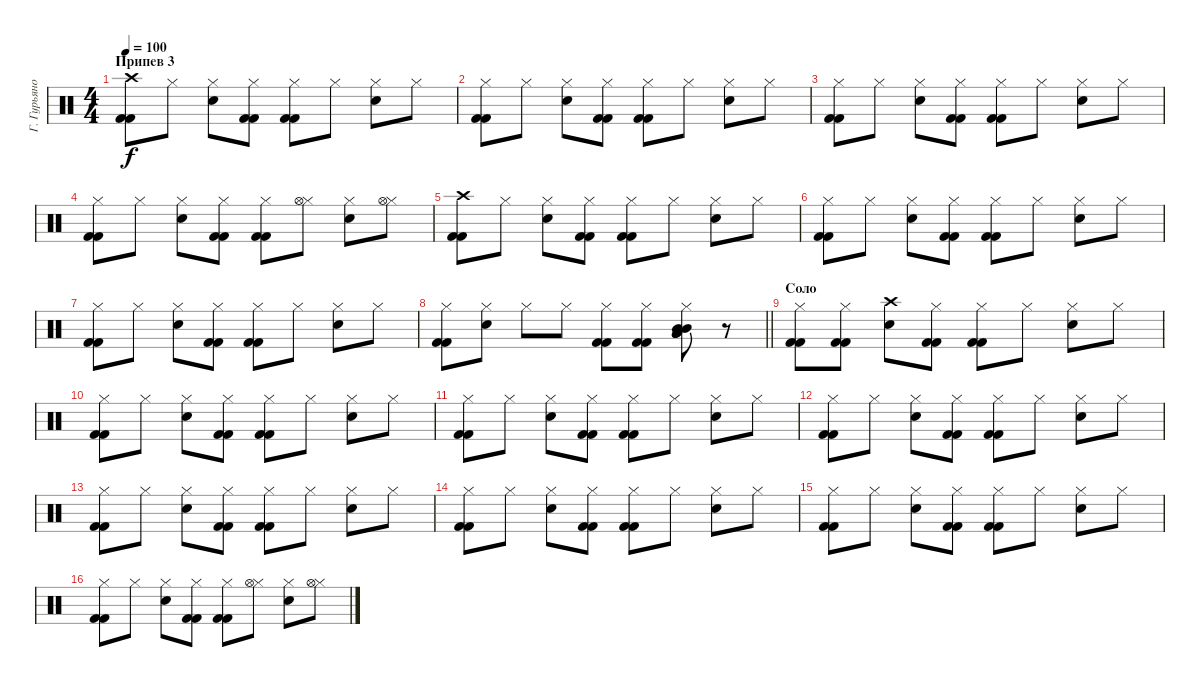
\track ("Г. Гурьянов" "Г. Гурьяно") {instrument percussion}
\staff {score}
\articulation defaults
\ts (4 4)
\section ("" "Припев 3")
\tempo 100
\clef neutral
\ks c
("Crash high (hit)" "Kick (hit) 2" "Kick (hit) 2").8{dy f} "Hi-Hat (closed)".8 ("Hi-Hat (closed)" "Snare (hit) 2").8 ("Hi-Hat (closed)" "Kick (hit) 2" "Kick (hit) 2").8 ("Hi-Hat (closed)" "Kick (hit) 2" "Kick (hit) 2").8 "Hi-Hat (closed)".8 ("Hi-Hat (closed)" "Snare (hit) 2").8 "Hi-Hat (closed)".8 |
("Hi-Hat (closed)" "Kick (hit) 2" "Kick (hit) 2").8 "Hi-Hat (closed)".8 ("Hi-Hat (closed)" "Snare (hit) 2").8 ("Hi-Hat (closed)" "Kick (hit) 2" "Kick (hit) 2").8 ("Hi-Hat (closed)" "Kick (hit) 2" "Kick (hit) 2").8 "Hi-Hat (closed)".8 ("Hi-Hat (closed)" "Snare (hit) 2").8 "Hi-Hat (closed)".8 |
("Hi-Hat (closed)" "Kick (hit) 2" "Kick (hit) 2").8 "Hi-Hat (closed)".8 ("Hi-Hat (closed)" "Snare (hit) 2").8 ("Hi-Hat (closed)" "Kick (hit) 2" "Kick (hit) 2").8 ("Hi-Hat (closed)" "Kick (hit) 2" "Kick (hit) 2").8 "Hi-Hat (closed)".8 ("Hi-Hat (closed)" "Snare (hit) 2").8 "Hi-Hat (closed)".8 |
("Hi-Hat (closed)" "Kick (hit) 2" "Kick (hit) 2").8 "Hi-Hat (closed)".8 ("Hi-Hat (closed)" "Snare (hit) 2").8 ("Hi-Hat (closed)" "Kick (hit) 2" "Kick (hit) 2").8 ("Hi-Hat (closed)" "Kick (hit) 2" "Kick (hit) 2").8 ("Hi-Hat (closed)" "Hi-Hat (open)").8 ("Hi-Hat (closed)" "Snare (hit) 2").8 ("Hi-Hat (closed)" "Hi-Hat (open)").8 |
("Crash high (hit)" "Kick (hit) 2" "Kick (hit) 2").8 "Hi-Hat (closed)".8 ("Hi-Hat (closed)" "Snare (hit) 2").8 ("Hi-Hat (closed)" "Kick (hit) 2" "Kick (hit) 2").8 ("Hi-Hat (closed)" "Kick (hit) 2" "Kick (hit) 2").8 "Hi-Hat (closed)".8 ("Hi-Hat (closed)" "Snare (hit) 2").8 "Hi-Hat (closed)".8 |
("Hi-Hat (closed)" "Kick (hit) 2" "Kick (hit) 2").8 "Hi-Hat (closed)".8 ("Hi-Hat (closed)" "Snare (hit) 2").8 ("Hi-Hat (closed)" "Kick (hit) 2" "Kick (hit) 2").8 ("Hi-Hat (closed)" "Kick (hit) 2" "Kick (hit) 2").8 "Hi-Hat (closed)".8 ("Hi-Hat (closed)" "Snare (hit) 2").8 "Hi-Hat (closed)".8 |
("Hi-Hat (closed)" "Kick (hit) 2" "Kick (hit) 2").8 "Hi-Hat (closed)".8 ("Hi-Hat (closed)" "Snare (hit) 2").8 ("Hi-Hat (closed)" "Kick (hit) 2" "Kick (hit) 2").8 ("Hi-Hat (closed)" "Kick (hit) 2" "Kick (hit) 2").8 "Hi-Hat (closed)".8 ("Hi-Hat (closed)" "Snare (hit) 2").8 "Hi-Hat (closed)".8 |
\barLineRight lightlight
("Hi-Hat (closed)" "Kick (hit) 2" "Kick (hit) 2").8 ("Hi-Hat (closed)" "Snare (hit) 2").8 "Hi-Hat (closed)".8 "Hi-Hat (closed)".8 ("Hi-Hat (closed)" "Kick (hit) 2" "Kick (hit) 2").8 ("Hi-Hat (closed)" "Kick (hit) 2" "Kick (hit) 2").8 ("Hi-Hat (closed)" "Low Tom (hit)" "Low Tom (hit)" "Low Tom (hit)" "Mid Tom (hit)" "Mid Tom (hit)").8 r.8 |
\section ("" "Соло")
("Hi-Hat (closed)" "Kick (hit) 2" "Kick (hit) 2").8 ("Hi-Hat (closed)" "Kick (hit) 2" "Kick (hit) 2").8 ("Crash high (hit)" "Snare (hit) 2").8 ("Hi-Hat (closed)" "Kick (hit) 2" "Kick (hit) 2").8 ("Hi-Hat (closed)" "Kick (hit) 2" "Kick (hit) 2").8 "Hi-Hat (closed)".8 ("Hi-Hat (closed)" "Snare (hit) 2").8 "Hi-Hat (closed)".8 |
("Hi-Hat (closed)" "Kick (hit) 2" "Kick (hit) 2").8 "Hi-Hat (closed)".8 ("Hi-Hat (closed)" "Snare (hit) 2").8 ("Hi-Hat (closed)" "Kick (hit) 2" "Kick (hit) 2").8 ("Hi-Hat (closed)" "Kick (hit) 2" "Kick (hit) 2").8 "Hi-Hat (closed)".8 ("Hi-Hat (closed)" "Snare (hit) 2").8 "Hi-Hat (closed)".8 |
("Hi-Hat (closed)" "Kick (hit) 2" "Kick (hit) 2").8 "Hi-Hat (closed)".8 ("Hi-Hat (closed)" "Snare (hit) 2").8 ("Hi-Hat (closed)" "Kick (hit) 2" "Kick (hit) 2").8 ("Hi-Hat (closed)" "Kick (hit) 2" "Kick (hit) 2").8 "Hi-Hat (closed)".8 ("Hi-Hat (closed)" "Snare (hit) 2").8 "Hi-Hat (closed)".8 |
("Hi-Hat (closed)" "Kick (hit) 2" "Kick (hit) 2").8 "Hi-Hat (closed)".8 ("Hi-Hat (closed)" "Snare (hit) 2").8 ("Hi-Hat (closed)" "Kick (hit) 2" "Kick (hit) 2").8 ("Hi-Hat (closed)" "Kick (hit) 2" "Kick (hit) 2").8 "Hi-Hat (closed)".8 ("Hi-Hat (closed)" "Snare (hit) 2").8 "Hi-Hat (closed)".8 |
("Hi-Hat (closed)" "Kick (hit) 2" "Kick (hit) 2").8 "Hi-Hat (closed)".8 ("Hi-Hat (closed)" "Snare (hit) 2").8 ("Hi-Hat (closed)" "Kick (hit) 2" "Kick (hit) 2").8 ("Hi-Hat (closed)" "Kick (hit) 2" "Kick (hit) 2").8 "Hi-Hat (closed)".8 ("Hi-Hat (closed)" "Snare (hit) 2").8 "Hi-Hat (closed)".8 |
("Hi-Hat (closed)" "Kick (hit) 2" "Kick (hit) 2").8 "Hi-Hat (closed)".8 ("Hi-Hat (closed)" "Snare (hit) 2").8 ("Hi-Hat (closed)" "Kick (hit) 2" "Kick (hit) 2").8 ("Hi-Hat (closed)" "Kick (hit) 2" "Kick (hit) 2").8 "Hi-Hat (closed)".8 ("Hi-Hat (closed)" "Snare (hit) 2").8 "Hi-Hat (closed)".8 |
("Hi-Hat (closed)" "Kick (hit) 2" "Kick (hit) 2").8 "Hi-Hat (closed)".8 ("Hi-Hat (closed)" "Snare (hit) 2").8 ("Hi-Hat (closed)" "Kick (hit) 2" "Kick (hit) 2").8 ("Hi-Hat (closed)" "Kick (hit) 2" "Kick (hit) 2").8 "Hi-Hat (closed)".8 ("Hi-Hat (closed)" "Snare (hit) 2").8 "Hi-Hat (closed)".8 |
("Hi-Hat (closed)" "Kick (hit) 2" "Kick (hit) 2").8 "Hi-Hat (closed)".8 ("Hi-Hat (closed)" "Snare (hit) 2").8 ("Hi-Hat (closed)" "Kick (hit) 2" "Kick (hit) 2").8 ("Hi-Hat (closed)" "Kick (hit) 2" "Kick (hit) 2").8 ("Hi-Hat (closed)" "Hi-Hat (open)").8 ("Hi-Hat (closed)" "Snare (hit) 2").8 ("Hi-Hat (closed)" "Hi-Hat (open)").8
